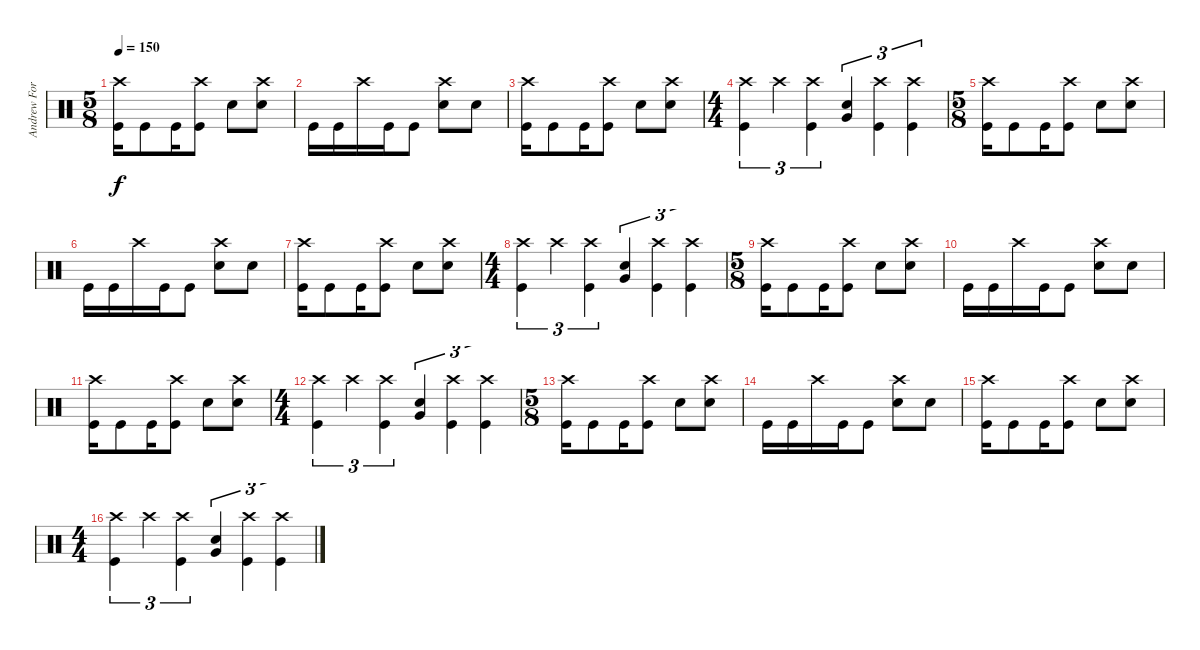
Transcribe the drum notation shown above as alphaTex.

\track ("Andrew Forsman" "Andrew For") {instrument percussion}
\staff {score}
\articulation defaults
\ts (5 8)
\tempo 150
\clef neutral
\ks c
("Crash high (hit)" "Kick (hit)").16{dy f} "Kick (hit)".8 "Kick (hit)".16 ("Crash high (hit)" "Kick (hit)").8 "Snare (hit) 2".8 ("Crash high (hit)" "Snare (hit) 2").8 |
"Kick (hit)".16 "Kick (hit)".16 "Crash high (hit)".16 "Kick (hit)".16 "Kick (hit)".8 ("Crash high (hit)" "Snare (hit) 2").8 "Snare (hit) 2".8 |
("Crash high (hit)" "Kick (hit)").16 "Kick (hit)".8 "Kick (hit)".16 ("Crash high (hit)" "Kick (hit)").8 "Snare (hit) 2".8 ("Crash high (hit)" "Snare (hit) 2").8 |
\ts (4 4)
("Crash high (hit)" "Kick (hit)").4{tu (3 2)} "Crash high (hit)".4{tu (3 2)} ("Crash high (hit)" "Kick (hit)").4{tu (3 2)} ("Snare (hit) 2" "Very Low Tom (hit)").4{tu (3 2)} ("Crash high (hit)" "Kick (hit)").4{tu (3 2)} ("Crash high (hit)" "Kick (hit)").4{tu (3 2)} |
\ts (5 8)
("Crash high (hit)" "Kick (hit)").16 "Kick (hit)".8 "Kick (hit)".16 ("Crash high (hit)" "Kick (hit)").8 "Snare (hit) 2".8 ("Crash high (hit)" "Snare (hit) 2").8 |
"Kick (hit)".16 "Kick (hit)".16 "Crash high (hit)".16 "Kick (hit)".16 "Kick (hit)".8 ("Crash high (hit)" "Snare (hit) 2").8 "Snare (hit) 2".8 |
("Crash high (hit)" "Kick (hit)").16 "Kick (hit)".8 "Kick (hit)".16 ("Crash high (hit)" "Kick (hit)").8 "Snare (hit) 2".8 ("Crash high (hit)" "Snare (hit) 2").8 |
\ts (4 4)
("Crash high (hit)" "Kick (hit)").4{tu (3 2)} "Crash high (hit)".4{tu (3 2)} ("Crash high (hit)" "Kick (hit)").4{tu (3 2)} ("Snare (hit) 2" "Very Low Tom (hit)").4{tu (3 2)} ("Crash high (hit)" "Kick (hit)").4{tu (3 2)} ("Crash high (hit)" "Kick (hit)").4{tu (3 2)} |
\ts (5 8)
("Crash high (hit)" "Kick (hit)").16 "Kick (hit)".8 "Kick (hit)".16 ("Crash high (hit)" "Kick (hit)").8 "Snare (hit) 2".8 ("Crash high (hit)" "Snare (hit) 2").8 |
"Kick (hit)".16 "Kick (hit)".16 "Crash high (hit)".16 "Kick (hit)".16 "Kick (hit)".8 ("Crash high (hit)" "Snare (hit) 2").8 "Snare (hit) 2".8 |
("Crash high (hit)" "Kick (hit)").16 "Kick (hit)".8 "Kick (hit)".16 ("Crash high (hit)" "Kick (hit)").8 "Snare (hit) 2".8 ("Crash high (hit)" "Snare (hit) 2").8 |
\ts (4 4)
("Crash high (hit)" "Kick (hit)").4{tu (3 2)} "Crash high (hit)".4{tu (3 2)} ("Crash high (hit)" "Kick (hit)").4{tu (3 2)} ("Snare (hit) 2" "Very Low Tom (hit)").4{tu (3 2)} ("Crash high (hit)" "Kick (hit)").4{tu (3 2)} ("Crash high (hit)" "Kick (hit)").4{tu (3 2)} |
\ts (5 8)
("Crash high (hit)" "Kick (hit)").16 "Kick (hit)".8 "Kick (hit)".16 ("Crash high (hit)" "Kick (hit)").8 "Snare (hit) 2".8 ("Crash high (hit)" "Snare (hit) 2").8 |
"Kick (hit)".16 "Kick (hit)".16 "Crash high (hit)".16 "Kick (hit)".16 "Kick (hit)".8 ("Crash high (hit)" "Snare (hit) 2").8 "Snare (hit) 2".8 |
("Crash high (hit)" "Kick (hit)").16 "Kick (hit)".8 "Kick (hit)".16 ("Crash high (hit)" "Kick (hit)").8 "Snare (hit) 2".8 ("Crash high (hit)" "Snare (hit) 2").8 |
\ts (4 4)
("Crash high (hit)" "Kick (hit)").4{tu (3 2)} "Crash high (hit)".4{tu (3 2)} ("Crash high (hit)" "Kick (hit)").4{tu (3 2)} ("Snare (hit) 2" "Very Low Tom (hit)").4{tu (3 2)} ("Crash high (hit)" "Kick (hit)").4{tu (3 2)} ("Crash high (hit)" "Kick (hit)").4{tu (3 2)}
